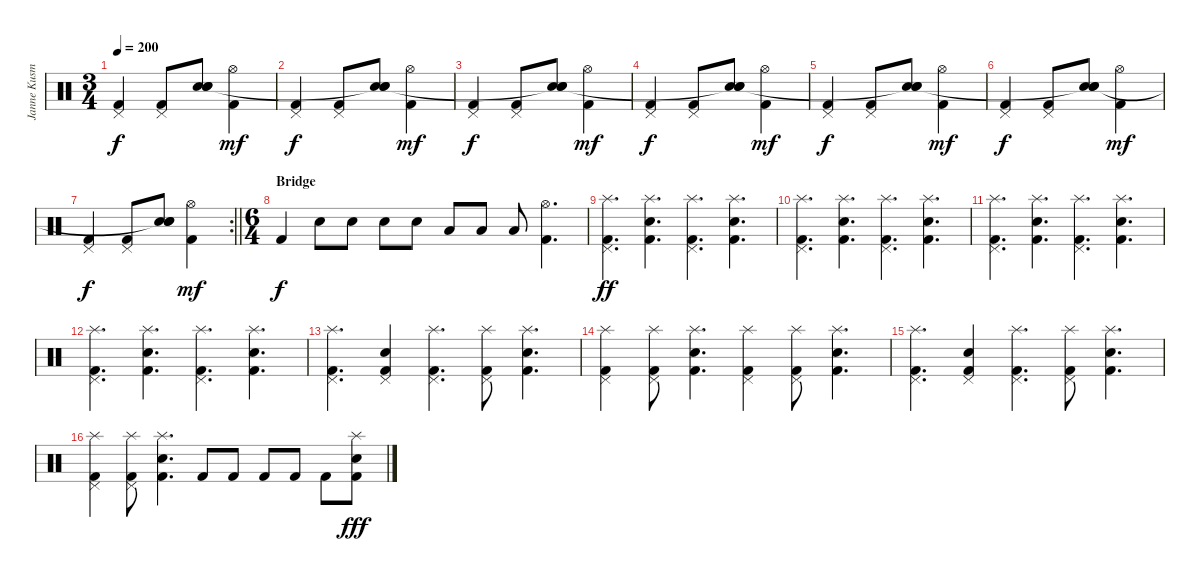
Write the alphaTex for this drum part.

\track ("Janne Kusmin" "Janne Kusm") {instrument percussion}
\staff {score}
\articulation defaults
\ts (3 4)
\tempo 200
\clef neutral
\ks c
("Pedal Hi-Hat (hit)" "Kick (hit) 2").4{dy f} ("Pedal Hi-Hat (hit)" "Kick (hit) 2").8 ("Snare (hit) 2" "Snare (hit) 2" "Snare (hit) 2"{t}).8 ("Hi-Hat (open)" "Kick (hit) 2").4{dy mf} |
("Pedal Hi-Hat (hit)" "Kick (hit) 2").4{dy f} ("Pedal Hi-Hat (hit)" "Kick (hit) 2").8 ("Snare (hit) 2" "Snare (hit) 2" "Snare (hit) 2"{t}).8 ("Hi-Hat (open)" "Kick (hit) 2").4{dy mf} |
("Pedal Hi-Hat (hit)" "Kick (hit) 2").4{dy f} ("Pedal Hi-Hat (hit)" "Kick (hit) 2").8 ("Snare (hit) 2" "Snare (hit) 2" "Snare (hit) 2"{t}).8 ("Hi-Hat (open)" "Kick (hit) 2").4{dy mf} |
("Pedal Hi-Hat (hit)" "Kick (hit) 2").4{dy f} ("Pedal Hi-Hat (hit)" "Kick (hit) 2").8 ("Snare (hit) 2" "Snare (hit) 2" "Snare (hit) 2"{t}).8 ("Hi-Hat (open)" "Kick (hit) 2").4{dy mf} |
("Pedal Hi-Hat (hit)" "Kick (hit) 2").4{dy f} ("Pedal Hi-Hat (hit)" "Kick (hit) 2").8 ("Snare (hit) 2" "Snare (hit) 2" "Snare (hit) 2"{t}).8 ("Hi-Hat (open)" "Kick (hit) 2").4{dy mf} |
("Pedal Hi-Hat (hit)" "Kick (hit) 2").4{dy f} ("Pedal Hi-Hat (hit)" "Kick (hit) 2").8 ("Snare (hit) 2" "Snare (hit) 2" "Snare (hit) 2"{t}).8 ("Hi-Hat (open)" "Kick (hit) 2").4{dy mf} |
\rc 2
\barLineRight lightlight
("Pedal Hi-Hat (hit)" "Kick (hit) 2").4{dy f} ("Pedal Hi-Hat (hit)" "Kick (hit) 2").8 ("Snare (hit) 2" "Snare (hit) 2" "Snare (hit) 2"{t}).8 ("Hi-Hat (open)" "Kick (hit) 2").4{dy mf} |
\ts (6 4)
\section ("" "Bridge")
"Kick (hit) 2".4{dy f} "Snare (hit) 2".8 "Snare (hit) 2".8 "Snare (hit) 2".8 "Snare (hit) 2".8 "Low Tom (hit)".8 "Low Tom (hit)".8 "Low Tom (hit)".8 ("Hi-Hat (open)" "Kick (hit) 2").4{d} |
("Splash (hit)" "Pedal Hi-Hat (hit)" "Kick (hit) 2").4{d dy ff} ("Splash (hit)" "Snare (hit) 2" "Kick (hit) 2").4{d} ("Splash (hit)" "Pedal Hi-Hat (hit)" "Kick (hit) 2").4{d} ("Splash (hit)" "Snare (hit) 2" "Kick (hit) 2").4{d} |
("Splash (hit)" "Pedal Hi-Hat (hit)" "Kick (hit) 2").4{d} ("Splash (hit)" "Snare (hit) 2" "Kick (hit) 2").4{d} ("Splash (hit)" "Pedal Hi-Hat (hit)" "Kick (hit) 2").4{d} ("Splash (hit)" "Snare (hit) 2" "Kick (hit) 2").4{d} |
("Splash (hit)" "Pedal Hi-Hat (hit)" "Kick (hit) 2").4{d} ("Splash (hit)" "Snare (hit) 2" "Kick (hit) 2").4{d} ("Splash (hit)" "Pedal Hi-Hat (hit)" "Kick (hit) 2").4{d} ("Splash (hit)" "Snare (hit) 2" "Kick (hit) 2").4{d} |
("Splash (hit)" "Pedal Hi-Hat (hit)" "Kick (hit) 2").4{d} ("Splash (hit)" "Snare (hit) 2" "Kick (hit) 2").4{d} ("Splash (hit)" "Pedal Hi-Hat (hit)" "Kick (hit) 2").4{d} ("Splash (hit)" "Snare (hit) 2" "Kick (hit) 2").4{d} |
("Splash (hit)" "Pedal Hi-Hat (hit)" "Kick (hit) 2").4{d} ("Pedal Hi-Hat (hit)" "Snare (hit) 2" "Kick (hit) 2").4 ("Splash (hit)" "Pedal Hi-Hat (hit)" "Kick (hit) 2").4{d} ("Splash (hit)" "Pedal Hi-Hat (hit)" "Kick (hit) 2").8 ("Splash (hit)" "Snare (hit) 2" "Kick (hit) 2").4{d} |
("Splash (hit)" "Pedal Hi-Hat (hit)" "Kick (hit) 2").4 ("Splash (hit)" "Pedal Hi-Hat (hit)" "Kick (hit) 2").8 ("Splash (hit)" "Snare (hit) 2" "Kick (hit) 2").4{d} ("Splash (hit)" "Pedal Hi-Hat (hit)" "Kick (hit) 2").4 ("Splash (hit)" "Pedal Hi-Hat (hit)" "Kick (hit) 2").8 ("Splash (hit)" "Snare (hit) 2" "Kick (hit) 2").4{d} |
("Splash (hit)" "Pedal Hi-Hat (hit)" "Kick (hit) 2").4{d} ("Pedal Hi-Hat (hit)" "Snare (hit) 2" "Kick (hit) 2").4 ("Splash (hit)" "Pedal Hi-Hat (hit)" "Kick (hit) 2").4{d} ("Splash (hit)" "Pedal Hi-Hat (hit)" "Kick (hit) 2").8 ("Splash (hit)" "Snare (hit) 2" "Kick (hit) 2").4{d} |
("Splash (hit)" "Pedal Hi-Hat (hit)" "Kick (hit) 2").4 ("Splash (hit)" "Pedal Hi-Hat (hit)" "Kick (hit) 2").8 ("Splash (hit)" "Snare (hit) 2" "Kick (hit) 2").4{d} "Kick (hit) 2".8 "Kick (hit) 2".8 "Kick (hit) 2".8 "Kick (hit) 2".8 "Kick (hit) 2".8 ("Splash (hit)" "Snare (hit) 2" "Kick (hit) 2").8{dy fff}
